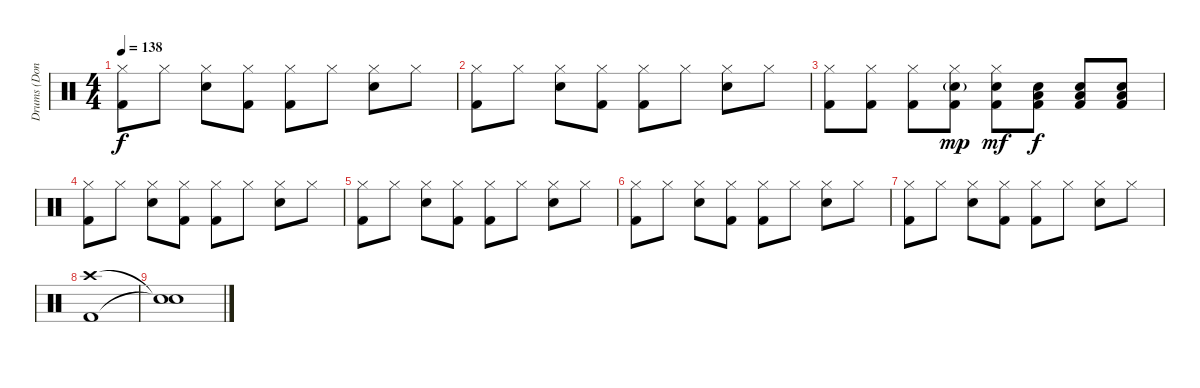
\track ("Drums (Don Henley)" "Drums (Don") {instrument percussion}
\staff {score}
\articulation defaults
\ts (4 4)
\tempo 138
\clef neutral
\ks c
("Hi-Hat (closed)" "Kick (hit) 2").8{dy f} "Hi-Hat (closed)".8 ("Hi-Hat (closed)" "Snare (hit) 2").8 ("Hi-Hat (closed)" "Kick (hit) 2").8 ("Hi-Hat (closed)" "Kick (hit) 2").8 "Hi-Hat (closed)".8 ("Hi-Hat (closed)" "Snare (hit) 2").8 "Hi-Hat (closed)".8 |
("Hi-Hat (closed)" "Kick (hit) 2").8 "Hi-Hat (closed)".8 ("Hi-Hat (closed)" "Snare (hit) 2").8 ("Hi-Hat (closed)" "Kick (hit) 2").8 ("Hi-Hat (closed)" "Kick (hit) 2").8 "Hi-Hat (closed)".8 ("Hi-Hat (closed)" "Snare (hit) 2").8 "Hi-Hat (closed)".8 |
("Hi-Hat (closed)" "Kick (hit) 2").8 ("Hi-Hat (closed)" "Kick (hit) 2").8 ("Hi-Hat (closed)" "Kick (hit) 2").8 ("Hi-Hat (closed)" "Snare (hit) 2"{g} "Kick (hit) 2").8{dy mp} ("Hi-Hat (closed)" "Snare (hit) 2" "Kick (hit) 2").8{dy mf} ("Low Floor Tom (hit)" "Snare (hit) 2" "Kick (hit) 2").8{dy f} ("Low Floor Tom (hit)" "Snare (hit) 2" "Kick (hit) 2").8 ("Low Floor Tom (hit)" "Snare (hit) 2" "Kick (hit) 2").8 |
("Hi-Hat (closed)" "Kick (hit) 2").8 "Hi-Hat (closed)".8 ("Hi-Hat (closed)" "Snare (hit) 2").8 ("Hi-Hat (closed)" "Kick (hit) 2").8 ("Hi-Hat (closed)" "Kick (hit) 2").8 "Hi-Hat (closed)".8 ("Hi-Hat (closed)" "Snare (hit) 2").8 "Hi-Hat (closed)".8 |
("Hi-Hat (closed)" "Kick (hit) 2").8 "Hi-Hat (closed)".8 ("Hi-Hat (closed)" "Snare (hit) 2").8 ("Hi-Hat (closed)" "Kick (hit) 2").8 ("Hi-Hat (closed)" "Kick (hit) 2").8 "Hi-Hat (closed)".8 ("Hi-Hat (closed)" "Snare (hit) 2").8 "Hi-Hat (closed)".8 |
("Hi-Hat (closed)" "Kick (hit) 2").8 "Hi-Hat (closed)".8 ("Hi-Hat (closed)" "Snare (hit) 2").8 ("Hi-Hat (closed)" "Kick (hit) 2").8 ("Hi-Hat (closed)" "Kick (hit) 2").8 "Hi-Hat (closed)".8 ("Hi-Hat (closed)" "Snare (hit) 2").8 "Hi-Hat (closed)".8 |
("Hi-Hat (closed)" "Kick (hit) 2").8 "Hi-Hat (closed)".8 ("Hi-Hat (closed)" "Snare (hit) 2").8 ("Hi-Hat (closed)" "Kick (hit) 2").8 ("Hi-Hat (closed)" "Kick (hit) 2").8 "Hi-Hat (closed)".8 ("Hi-Hat (closed)" "Snare (hit) 2").8 "Hi-Hat (closed)".8 |
("Crash high (hit)" "Kick (hit) 2").1 |
("Snare (hit)"{t} "Snare (hit)"{t}).1
